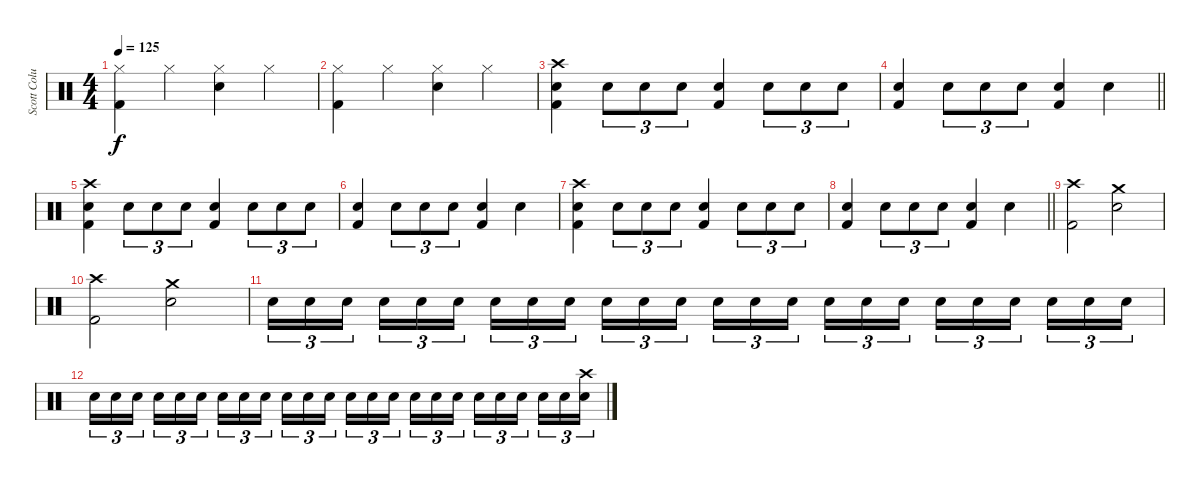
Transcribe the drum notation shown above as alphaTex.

\track ("Scott Columbus" "Scott Colu") {instrument percussion}
\staff {score}
\articulation defaults
\ts (4 4)
\tempo 125
\clef neutral
\ks c
("Hi-Hat (closed)" "Kick (hit) 2").4{dy f} "Hi-Hat (closed)".4 ("Hi-Hat (closed)" "Snare (hit) 2").4 "Hi-Hat (closed)".4 |
("Hi-Hat (closed)" "Kick (hit) 2").4 "Hi-Hat (closed)".4 ("Hi-Hat (closed)" "Snare (hit) 2").4 "Hi-Hat (closed)".4 |
("Crash high (hit)" "Snare (hit) 2" "Kick (hit) 2").4 "Snare (hit) 2".8{tu (3 2)} "Snare (hit) 2".8{tu (3 2)} "Snare (hit) 2".8{tu (3 2)} ("Snare (hit) 2" "Kick (hit) 2").4 "Snare (hit) 2".8{tu (3 2)} "Snare (hit) 2".8{tu (3 2)} "Snare (hit) 2".8{tu (3 2)} |
\barLineRight lightlight
("Snare (hit) 2" "Kick (hit) 2").4 "Snare (hit) 2".8{tu (3 2)} "Snare (hit) 2".8{tu (3 2)} "Snare (hit) 2".8{tu (3 2)} ("Snare (hit) 2" "Kick (hit) 2").4 "Snare (hit) 2".4 |
("Crash high (hit)" "Snare (hit) 2" "Kick (hit) 2").4 "Snare (hit) 2".8{tu (3 2)} "Snare (hit) 2".8{tu (3 2)} "Snare (hit) 2".8{tu (3 2)} ("Snare (hit) 2" "Kick (hit) 2").4 "Snare (hit) 2".8{tu (3 2)} "Snare (hit) 2".8{tu (3 2)} "Snare (hit) 2".8{tu (3 2)} |
("Snare (hit) 2" "Kick (hit) 2").4 "Snare (hit) 2".8{tu (3 2)} "Snare (hit) 2".8{tu (3 2)} "Snare (hit) 2".8{tu (3 2)} ("Snare (hit) 2" "Kick (hit) 2").4 "Snare (hit) 2".4 |
("Crash high (hit)" "Snare (hit) 2" "Kick (hit) 2").4 "Snare (hit) 2".8{tu (3 2)} "Snare (hit) 2".8{tu (3 2)} "Snare (hit) 2".8{tu (3 2)} ("Snare (hit) 2" "Kick (hit) 2").4 "Snare (hit) 2".8{tu (3 2)} "Snare (hit) 2".8{tu (3 2)} "Snare (hit) 2".8{tu (3 2)} |
\barLineRight lightlight
("Snare (hit) 2" "Kick (hit) 2").4 "Snare (hit) 2".8{tu (3 2)} "Snare (hit) 2".8{tu (3 2)} "Snare (hit) 2".8{tu (3 2)} ("Snare (hit) 2" "Kick (hit) 2").4 "Snare (hit) 2".4 |
("Crash high (hit)" "Kick (hit) 2").2 ("Crash medium (hit)" "Snare (hit) 2").2 |
("Crash high (hit)" "Kick (hit) 2").2 ("Crash medium (hit)" "Snare (hit) 2").2 |
"Snare (hit) 2".16{tu (3 2)} "Snare (hit) 2".16{tu (3 2)} "Snare (hit) 2".16{tu (3 2) beam splitsecondary} "Snare (hit) 2".16{tu (3 2)} "Snare (hit) 2".16{tu (3 2)} "Snare (hit) 2".16{tu (3 2)} "Snare (hit) 2".16{tu (3 2)} "Snare (hit) 2".16{tu (3 2)} "Snare (hit) 2".16{tu (3 2) beam splitsecondary} "Snare (hit) 2".16{tu (3 2)} "Snare (hit) 2".16{tu (3 2)} "Snare (hit) 2".16{tu (3 2)} "Snare (hit) 2".16{tu (3 2)} "Snare (hit) 2".16{tu (3 2)} "Snare (hit) 2".16{tu (3 2) beam splitsecondary} "Snare (hit) 2".16{tu (3 2)} "Snare (hit) 2".16{tu (3 2)} "Snare (hit) 2".16{tu (3 2)} "Snare (hit) 2".16{tu (3 2)} "Snare (hit) 2".16{tu (3 2)} "Snare (hit) 2".16{tu (3 2) beam splitsecondary} "Snare (hit) 2".16{tu (3 2)} "Snare (hit) 2".16{tu (3 2)} "Snare (hit) 2".16{tu (3 2)} |
"Snare (hit) 2".16{tu (3 2)} "Snare (hit) 2".16{tu (3 2)} "Snare (hit) 2".16{tu (3 2) beam splitsecondary} "Snare (hit) 2".16{tu (3 2)} "Snare (hit) 2".16{tu (3 2)} "Snare (hit) 2".16{tu (3 2)} "Snare (hit) 2".16{tu (3 2)} "Snare (hit) 2".16{tu (3 2)} "Snare (hit) 2".16{tu (3 2) beam splitsecondary} "Snare (hit) 2".16{tu (3 2)} "Snare (hit) 2".16{tu (3 2)} "Snare (hit) 2".16{tu (3 2)} "Snare (hit) 2".16{tu (3 2)} "Snare (hit) 2".16{tu (3 2)} "Snare (hit) 2".16{tu (3 2) beam splitsecondary} "Snare (hit) 2".16{tu (3 2)} "Snare (hit) 2".16{tu (3 2)} "Snare (hit) 2".16{tu (3 2)} "Snare (hit) 2".16{tu (3 2)} "Snare (hit) 2".16{tu (3 2)} "Snare (hit) 2".16{tu (3 2) beam splitsecondary} "Snare (hit) 2".16{tu (3 2)} "Snare (hit) 2".16{tu (3 2)} ("Crash high (hit)" "Snare (hit) 2").16{tu (3 2)}
